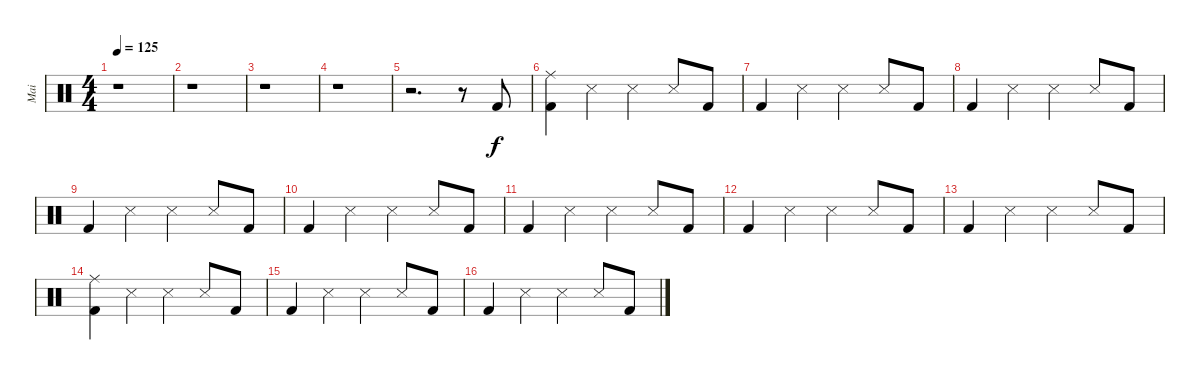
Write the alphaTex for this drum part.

\track ("Mai" "Mai") {instrument percussion}
\staff {score}
\articulation defaults
\ts (4 4)
\tempo 125
\clef neutral
\ks c
r.1{dy f} |
r.1 |
r.1 |
r.1 |
r.2{d} r.8 "Kick (hit) 2".8 |
("Ride (middle)" "Kick (hit) 2").4 "Snare (side stick) 3".4 "Snare (side stick) 3".4 "Snare (side stick) 3".8 "Kick (hit) 2".8 |
"Kick (hit) 2".4 "Snare (side stick) 3".4 "Snare (side stick) 3".4 "Snare (side stick) 3".8 "Kick (hit) 2".8 |
"Kick (hit) 2".4 "Snare (side stick) 3".4 "Snare (side stick) 3".4 "Snare (side stick) 3".8 "Kick (hit) 2".8 |
"Kick (hit) 2".4 "Snare (side stick) 3".4 "Snare (side stick) 3".4 "Snare (side stick) 3".8 "Kick (hit) 2".8 |
"Kick (hit) 2".4 "Snare (side stick) 3".4 "Snare (side stick) 3".4 "Snare (side stick) 3".8 "Kick (hit) 2".8 |
"Kick (hit) 2".4 "Snare (side stick) 3".4 "Snare (side stick) 3".4 "Snare (side stick) 3".8 "Kick (hit) 2".8 |
"Kick (hit) 2".4 "Snare (side stick) 3".4 "Snare (side stick) 3".4 "Snare (side stick) 3".8 "Kick (hit) 2".8 |
"Kick (hit) 2".4 "Snare (side stick) 3".4 "Snare (side stick) 3".4 "Snare (side stick) 3".8 "Kick (hit) 2".8 |
("Ride (middle)" "Kick (hit) 2").4 "Snare (side stick) 3".4 "Snare (side stick) 3".4 "Snare (side stick) 3".8 "Kick (hit) 2".8 |
"Kick (hit) 2".4 "Snare (side stick) 3".4 "Snare (side stick) 3".4 "Snare (side stick) 3".8 "Kick (hit) 2".8 |
"Kick (hit) 2".4 "Snare (side stick) 3".4 "Snare (side stick) 3".4 "Snare (side stick) 3".8 "Kick (hit) 2".8
